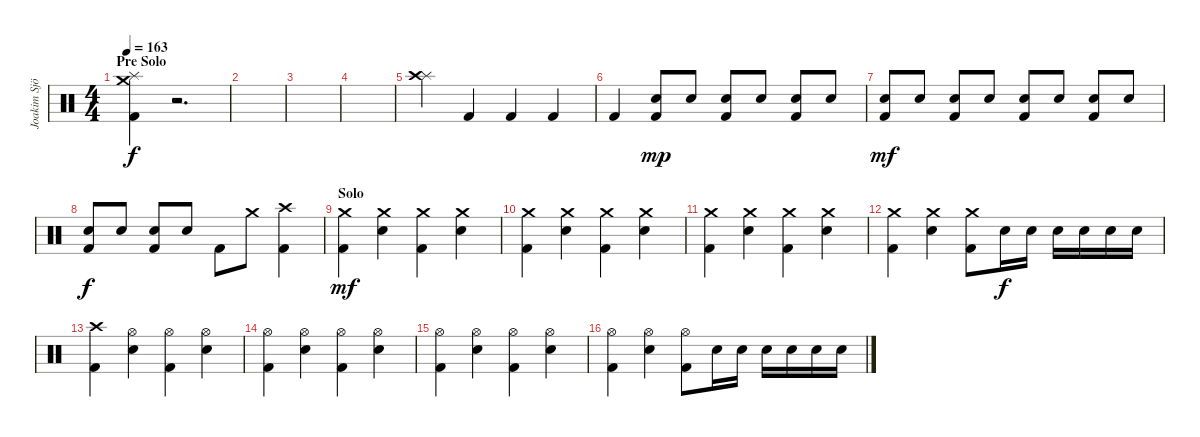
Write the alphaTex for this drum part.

\track ("Joakim Sjöberg" "Joakim Sjö") {instrument percussion}
\staff {score}
\articulation defaults
\ts (4 4)
\section ("" "Pre Solo")
\tempo 163
\clef neutral
\ks c
("Splash (hit)" "Crash medium (hit)" "Kick (hit) 2").4{dy f} r.2{d} |
|
|
|
("Splash (hit)" "Crash high (hit)").4 "Kick (hit) 2".4 "Kick (hit) 2".4 "Kick (hit) 2".4 |
"Kick (hit) 2".4 ("Electric Snare (hit)" "Kick (hit) 2").8{dy mp} "Electric Snare (hit)".8 ("Electric Snare (hit)" "Kick (hit) 2").8 "Electric Snare (hit)".8 ("Electric Snare (hit)" "Kick (hit) 2").8 "Electric Snare (hit)".8 |
("Electric Snare (hit)" "Kick (hit) 2").8{dy mf} "Electric Snare (hit)".8 ("Electric Snare (hit)" "Kick (hit) 2").8 "Electric Snare (hit)".8 ("Electric Snare (hit)" "Kick (hit) 2").8 "Electric Snare (hit)".8 ("Electric Snare (hit)" "Kick (hit) 2").8 "Electric Snare (hit)".8 |
("Electric Snare (hit)" "Kick (hit) 2").8{dy f} "Electric Snare (hit)".8 ("Electric Snare (hit)" "Kick (hit) 2").8 "Electric Snare (hit)".8 "Kick (hit) 2".8 "Crash medium (hit)".8 ("Crash high (hit)" "Kick (hit) 2").4 |
\section ("" "Solo")
("Crash medium (hit)" "Kick (hit) 2").4{dy mf} ("Crash medium (hit)" "Electric Snare (hit)").4 ("Crash medium (hit)" "Kick (hit) 2").4 ("Crash medium (hit)" "Electric Snare (hit)").4 |
("Crash medium (hit)" "Kick (hit) 2").4 ("Crash medium (hit)" "Electric Snare (hit)").4 ("Crash medium (hit)" "Kick (hit) 2").4 ("Crash medium (hit)" "Electric Snare (hit)").4 |
("Crash medium (hit)" "Kick (hit) 2").4 ("Crash medium (hit)" "Electric Snare (hit)").4 ("Crash medium (hit)" "Kick (hit) 2").4 ("Crash medium (hit)" "Electric Snare (hit)").4 |
("Crash medium (hit)" "Kick (hit) 2").4 ("Crash medium (hit)" "Electric Snare (hit)").4 ("Crash medium (hit)" "Kick (hit) 2").8 "Electric Snare (hit)".16{dy f} "Electric Snare (hit)".16 "Electric Snare (hit)".16 "Electric Snare (hit)".16 "Electric Snare (hit)".16 "Electric Snare (hit)".16 |
("Crash high (hit)" "Kick (hit) 2").4 ("Hi-Hat (open)" "Electric Snare (hit)").4 ("Hi-Hat (open)" "Kick (hit) 2").4 ("Hi-Hat (open)" "Electric Snare (hit)").4 |
("Hi-Hat (open)" "Kick (hit) 2").4 ("Hi-Hat (open)" "Electric Snare (hit)").4 ("Hi-Hat (open)" "Kick (hit) 2").4 ("Hi-Hat (open)" "Electric Snare (hit)").4 |
("Hi-Hat (open)" "Kick (hit) 2").4 ("Hi-Hat (open)" "Electric Snare (hit)").4 ("Hi-Hat (open)" "Kick (hit) 2").4 ("Hi-Hat (open)" "Electric Snare (hit)").4 |
("Hi-Hat (open)" "Kick (hit) 2").4 ("Hi-Hat (open)" "Electric Snare (hit)").4 ("Hi-Hat (open)" "Kick (hit) 2").8 "Electric Snare (hit)".16 "Electric Snare (hit)".16 "Electric Snare (hit)".16 "Electric Snare (hit)".16 "Electric Snare (hit)".16 "Electric Snare (hit)".16
